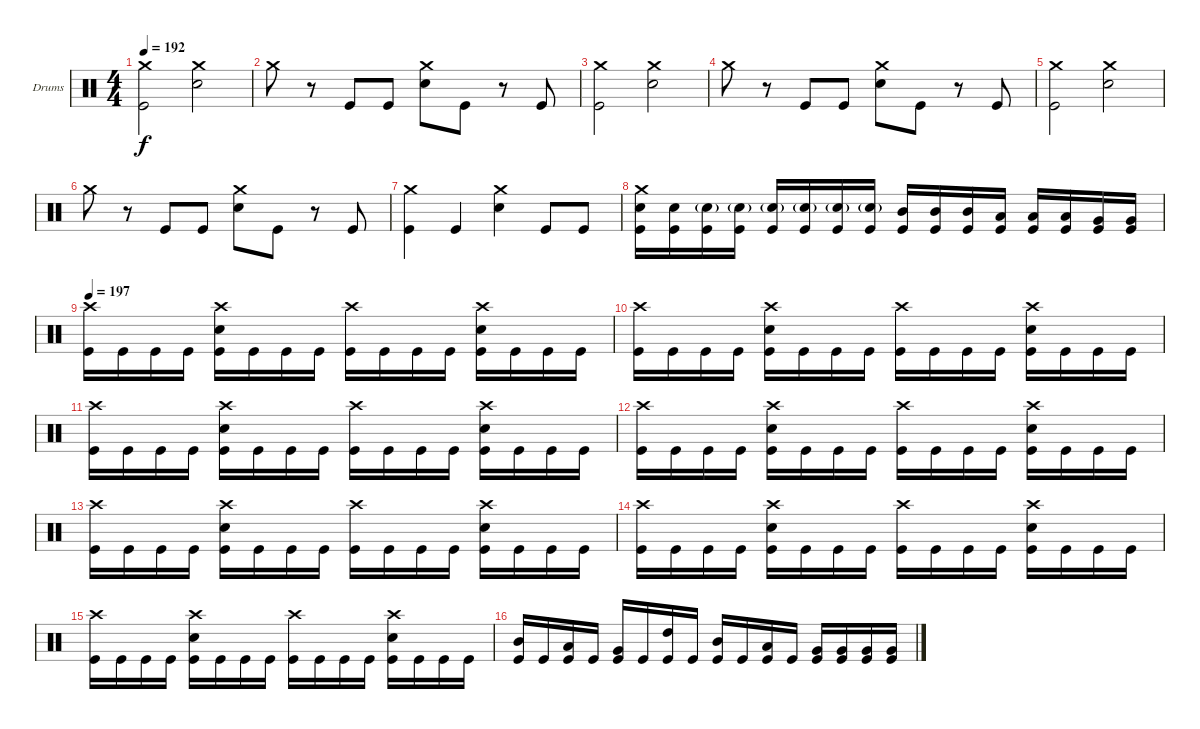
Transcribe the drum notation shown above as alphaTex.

\bracketExtendMode groupsimilarinstruments
\firstSystemTrackNameOrientation horizontal
\otherSystemsTrackNameOrientation horizontal
\track ("Drumkit" "Drums") {instrument percussion}
\staff {score}
\articulation defaults
\ts (4 4)
\tempo 192
\clef neutral
\ks c
("Crash medium (hit)" "Kick (hit)").2{dy f} ("Crash medium (hit)" "Snare (hit) 2").2 |
"Crash medium (hit)".8 r.8 "Kick (hit)".8 "Kick (hit)".8 ("Crash medium (hit)" "Snare (hit) 2").8 "Kick (hit)".8 r.8 "Kick (hit)".8 |
("Crash medium (hit)" "Kick (hit)").2 ("Crash medium (hit)" "Snare (hit) 2").2 |
"Crash medium (hit)".8 r.8 "Kick (hit)".8 "Kick (hit)".8 ("Crash medium (hit)" "Snare (hit) 2").8 "Kick (hit)".8 r.8 "Kick (hit)".8 |
("Crash medium (hit)" "Kick (hit)").2 ("Crash medium (hit)" "Snare (hit) 2").2 |
"Crash medium (hit)".8 r.8 "Kick (hit)".8 "Kick (hit)".8 ("Crash medium (hit)" "Snare (hit) 2").8 "Kick (hit)".8 r.8 "Kick (hit)".8 |
("Crash medium (hit)" "Kick (hit)").4 "Kick (hit)".4 ("Crash medium (hit)" "Snare (hit) 2").4 "Kick (hit)".8 "Kick (hit)".8 |
("Crash medium (hit)" "Snare (hit) 2" "Kick (hit)").16 ("Snare (hit) 2" "Kick (hit)").16 ("Snare (hit) 2"{g} "Kick (hit)").16 ("Snare (hit) 2"{g} "Kick (hit)").16 ("Snare (hit) 2"{g} "Kick (hit)").16 ("Snare (hit) 2"{g} "Kick (hit)").16 ("Snare (hit) 2"{g} "Kick (hit)").16 ("Snare (hit) 2"{g} "Kick (hit)").16 ("Mid Tom (hit)" "Kick (hit)").16 ("Mid Tom (hit)" "Kick (hit)").16 ("Mid Tom (hit)" "Kick (hit)").16 ("Low Tom (hit)" "Kick (hit)").16 ("Low Tom (hit)" "Kick (hit)").16 ("Low Tom (hit)" "Kick (hit)").16 ("Very Low Tom (hit)" "Kick (hit)").16 ("Very Low Tom (hit)" "Kick (hit)").16 |
\tempo 197
("Crash high (hit)" "Kick (hit)").16 "Kick (hit)".16 "Kick (hit)".16 "Kick (hit)".16 ("Crash high (hit)" "Snare (hit) 2" "Kick (hit)").16 "Kick (hit)".16 "Kick (hit)".16 "Kick (hit)".16 ("Crash high (hit)" "Kick (hit)").16 "Kick (hit)".16 "Kick (hit)".16 "Kick (hit)".16 ("Crash high (hit)" "Snare (hit) 2" "Kick (hit)").16 "Kick (hit)".16 "Kick (hit)".16 "Kick (hit)".16 |
("Crash high (hit)" "Kick (hit)").16 "Kick (hit)".16 "Kick (hit)".16 "Kick (hit)".16 ("Crash high (hit)" "Snare (hit) 2" "Kick (hit)").16 "Kick (hit)".16 "Kick (hit)".16 "Kick (hit)".16 ("Crash high (hit)" "Kick (hit)").16 "Kick (hit)".16 "Kick (hit)".16 "Kick (hit)".16 ("Crash high (hit)" "Snare (hit) 2" "Kick (hit)").16 "Kick (hit)".16 "Kick (hit)".16 "Kick (hit)".16 |
("Crash high (hit)" "Kick (hit)").16 "Kick (hit)".16 "Kick (hit)".16 "Kick (hit)".16 ("Crash high (hit)" "Snare (hit) 2" "Kick (hit)").16 "Kick (hit)".16 "Kick (hit)".16 "Kick (hit)".16 ("Crash high (hit)" "Kick (hit)").16 "Kick (hit)".16 "Kick (hit)".16 "Kick (hit)".16 ("Crash high (hit)" "Snare (hit) 2" "Kick (hit)").16 "Kick (hit)".16 "Kick (hit)".16 "Kick (hit)".16 |
("Crash high (hit)" "Kick (hit)").16 "Kick (hit)".16 "Kick (hit)".16 "Kick (hit)".16 ("Crash high (hit)" "Snare (hit) 2" "Kick (hit)").16 "Kick (hit)".16 "Kick (hit)".16 "Kick (hit)".16 ("Crash high (hit)" "Kick (hit)").16 "Kick (hit)".16 "Kick (hit)".16 "Kick (hit)".16 ("Crash high (hit)" "Snare (hit) 2" "Kick (hit)").16 "Kick (hit)".16 "Kick (hit)".16 "Kick (hit)".16 |
("Crash high (hit)" "Kick (hit)").16 "Kick (hit)".16 "Kick (hit)".16 "Kick (hit)".16 ("Crash high (hit)" "Snare (hit) 2" "Kick (hit)").16 "Kick (hit)".16 "Kick (hit)".16 "Kick (hit)".16 ("Crash high (hit)" "Kick (hit)").16 "Kick (hit)".16 "Kick (hit)".16 "Kick (hit)".16 ("Crash high (hit)" "Snare (hit) 2" "Kick (hit)").16 "Kick (hit)".16 "Kick (hit)".16 "Kick (hit)".16 |
("Crash high (hit)" "Kick (hit)").16 "Kick (hit)".16 "Kick (hit)".16 "Kick (hit)".16 ("Crash high (hit)" "Snare (hit) 2" "Kick (hit)").16 "Kick (hit)".16 "Kick (hit)".16 "Kick (hit)".16 ("Crash high (hit)" "Kick (hit)").16 "Kick (hit)".16 "Kick (hit)".16 "Kick (hit)".16 ("Crash high (hit)" "Snare (hit) 2" "Kick (hit)").16 "Kick (hit)".16 "Kick (hit)".16 "Kick (hit)".16 |
("Crash high (hit)" "Kick (hit)").16 "Kick (hit)".16 "Kick (hit)".16 "Kick (hit)".16 ("Crash high (hit)" "Snare (hit) 2" "Kick (hit)").16 "Kick (hit)".16 "Kick (hit)".16 "Kick (hit)".16 ("Crash high (hit)" "Kick (hit)").16 "Kick (hit)".16 "Kick (hit)".16 "Kick (hit)".16 ("Crash high (hit)" "Snare (hit) 2" "Kick (hit)").16 "Kick (hit)".16 "Kick (hit)".16 "Kick (hit)".16 |
("Mid Tom (hit)" "Kick (hit)").16 "Kick (hit)".16 ("Low Tom (hit)" "Kick (hit)").16 "Kick (hit)".16 ("Very Low Tom (hit)" "Kick (hit)").16 "Kick (hit)".16 ("High Tom (hit)" "Kick (hit)").16 "Kick (hit)".16 ("Mid Tom (hit)" "Kick (hit)").16 "Kick (hit)".16 ("Low Tom (hit)" "Kick (hit)").16 "Kick (hit)".16 ("Very Low Tom (hit)" "Kick (hit)").16 ("Very Low Tom (hit)" "Kick (hit)").16 ("Very Low Tom (hit)" "Kick (hit)").16 ("Very Low Tom (hit)" "Kick (hit)").16
